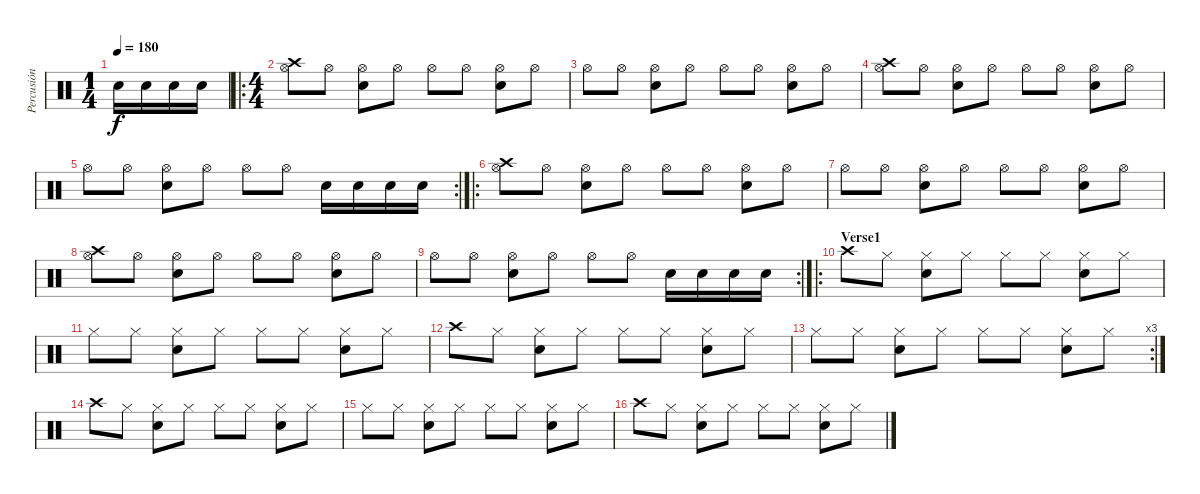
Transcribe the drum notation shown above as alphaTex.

\track ("Percusión" "Percusión") {instrument percussion}
\staff {score}
\articulation defaults
\ts (1 4)
\tempo 180
\clef neutral
\ks c "Snare (hit) 2".16{dy f} "Snare (hit) 2".16 "Snare (hit) 2".16 "Snare (hit) 2".16
|
\ro
\ts (4 4)
("Hi-Hat (open)" "Crash high (hit)").8 "Hi-Hat (open)".8 ("Hi-Hat (open)" "Snare (hit) 2").8 "Hi-Hat (open)".8 "Hi-Hat (open)".8 "Hi-Hat (open)".8 ("Hi-Hat (open)" "Snare (hit) 2").8 "Hi-Hat (open)".8 |
"Hi-Hat (open)".8 "Hi-Hat (open)".8 ("Hi-Hat (open)" "Snare (hit) 2").8 "Hi-Hat (open)".8 "Hi-Hat (open)".8 "Hi-Hat (open)".8 ("Hi-Hat (open)" "Snare (hit) 2").8 "Hi-Hat (open)".8 |
("Hi-Hat (open)" "Crash high (hit)").8 "Hi-Hat (open)".8 ("Hi-Hat (open)" "Snare (hit) 2").8 "Hi-Hat (open)".8 "Hi-Hat (open)".8 "Hi-Hat (open)".8 ("Hi-Hat (open)" "Snare (hit) 2").8 "Hi-Hat (open)".8 |
\rc 2 "Hi-Hat (open)".8 "Hi-Hat (open)".8
("Hi-Hat (open)" "Snare (hit) 2").8 "Hi-Hat (open)".8 "Hi-Hat (open)".8 "Hi-Hat (open)".8 "Snare (hit) 2".16 "Snare (hit) 2".16 "Snare (hit) 2".16 "Snare (hit) 2".16 |
\ro
("Hi-Hat (open)" "Crash high (hit)").8 "Hi-Hat (open)".8 ("Hi-Hat (open)" "Snare (hit) 2").8 "Hi-Hat (open)".8 "Hi-Hat (open)".8 "Hi-Hat (open)".8 ("Hi-Hat (open)" "Snare (hit) 2").8 "Hi-Hat (open)".8 |
"Hi-Hat (open)".8 "Hi-Hat (open)".8 ("Hi-Hat (open)" "Snare (hit) 2").8 "Hi-Hat (open)".8 "Hi-Hat (open)".8 "Hi-Hat (open)".8 ("Hi-Hat (open)" "Snare (hit) 2").8 "Hi-Hat (open)".8 |
("Hi-Hat (open)" "Crash high (hit)").8 "Hi-Hat (open)".8 ("Hi-Hat (open)" "Snare (hit) 2").8 "Hi-Hat (open)".8 "Hi-Hat (open)".8 "Hi-Hat (open)".8 ("Hi-Hat (open)" "Snare (hit) 2").8 "Hi-Hat (open)".8 |
\rc 2 "Hi-Hat (open)".8 "Hi-Hat (open)".8
("Hi-Hat (open)" "Snare (hit) 2").8 "Hi-Hat (open)".8 "Hi-Hat (open)".8 "Hi-Hat (open)".8 "Snare (hit) 2".16 "Snare (hit) 2".16 "Snare (hit) 2".16 "Snare (hit) 2".16 |
\ro
\section ("" "Verse1")
"Crash high (hit)".8 "Hi-Hat (closed)".8 ("Hi-Hat (closed)" "Snare (hit) 2").8 "Hi-Hat (closed)".8 "Hi-Hat (closed)".8 "Hi-Hat (closed)".8 ("Hi-Hat (closed)" "Snare (hit) 2").8 "Hi-Hat (closed)".8 |
"Hi-Hat (closed)".8 "Hi-Hat (closed)".8 ("Hi-Hat (closed)" "Snare (hit) 2").8 "Hi-Hat (closed)".8 "Hi-Hat (closed)".8 "Hi-Hat (closed)".8 ("Hi-Hat (closed)" "Snare (hit) 2").8 "Hi-Hat (closed)".8 |
"Crash high (hit)".8 "Hi-Hat (closed)".8 ("Hi-Hat (closed)" "Snare (hit) 2").8 "Hi-Hat (closed)".8 "Hi-Hat (closed)".8 "Hi-Hat (closed)".8 ("Hi-Hat (closed)" "Snare (hit) 2").8 "Hi-Hat (closed)".8 |
\rc 3 "Hi-Hat (closed)".8 "Hi-Hat (closed)".8
("Hi-Hat (closed)" "Snare (hit) 2").8 "Hi-Hat (closed)".8 "Hi-Hat (closed)".8 "Hi-Hat (closed)".8 ("Hi-Hat (closed)" "Snare (hit) 2").8 "Hi-Hat (closed)".8 |
"Crash high (hit)".8 "Hi-Hat (closed)".8 ("Hi-Hat (closed)" "Snare (hit) 2").8 "Hi-Hat (closed)".8 "Hi-Hat (closed)".8 "Hi-Hat (closed)".8 ("Hi-Hat (closed)" "Snare (hit) 2").8 "Hi-Hat (closed)".8 |
"Hi-Hat (closed)".8 "Hi-Hat (closed)".8 ("Hi-Hat (closed)" "Snare (hit) 2").8 "Hi-Hat (closed)".8 "Hi-Hat (closed)".8 "Hi-Hat (closed)".8 ("Hi-Hat (closed)" "Snare (hit) 2").8 "Hi-Hat (closed)".8 |
"Crash high (hit)".8 "Hi-Hat (closed)".8 ("Hi-Hat (closed)" "Snare (hit) 2").8 "Hi-Hat (closed)".8 "Hi-Hat (closed)".8 "Hi-Hat (closed)".8 ("Hi-Hat (closed)" "Snare (hit) 2").8 "Hi-Hat (closed)".8
